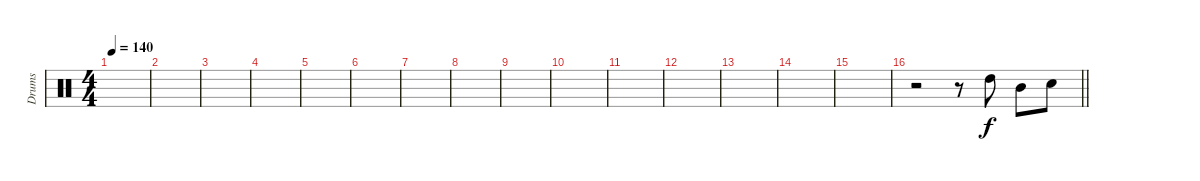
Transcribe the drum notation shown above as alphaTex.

\track ("Drums" "Drums") {instrument percussion}
\staff {score}
\articulation defaults
\ts (4 4)
\tempo 140
\clef neutral
\ks c
|
|
|
|
|
|
|
|
|
|
|
|
|
|
|
\barLineRight lightlight
r.2 r.8 "High Tom (hit)".8 "Mid Tom (hit)".8 "Snare (hit) 2".8
